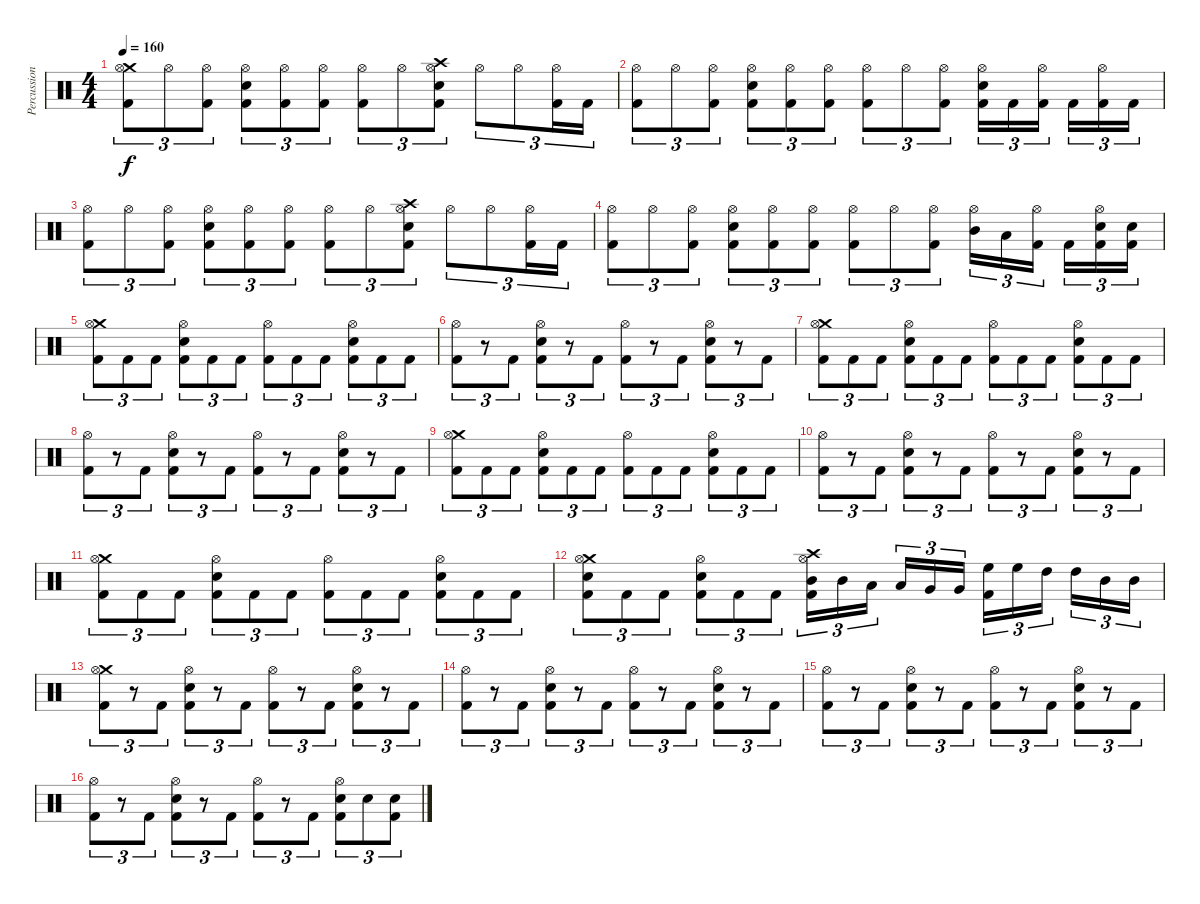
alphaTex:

\track ("Percussion" "Percussion") {instrument percussion}
\staff {score}
\articulation defaults
\ts (4 4)
\tempo 160
\clef neutral
\ks c
("Crash medium (hit)" "Hi-Hat (open)" "Kick (hit) 2").8{tu (3 2) dy f} "Hi-Hat (open)".8{tu (3 2)} ("Hi-Hat (open)" "Kick (hit) 2").8{tu (3 2)} ("Hi-Hat (open)" "Electric Snare (hit)" "Kick (hit) 2").8{tu (3 2)} ("Hi-Hat (open)" "Kick (hit) 2").8{tu (3 2)} ("Hi-Hat (open)" "Kick (hit) 2").8{tu (3 2)} ("Hi-Hat (open)" "Kick (hit) 2").8{tu (3 2)} "Hi-Hat (open)".8{tu (3 2)} ("Crash high (hit)" "Hi-Hat (open)" "Electric Snare (hit)" "Kick (hit) 2").8{tu (3 2)} "Hi-Hat (open)".8{tu (3 2)} "Hi-Hat (open)".8{tu (3 2)} ("Hi-Hat (open)" "Kick (hit) 2").16{tu (3 2)} "Kick (hit) 2".16{tu (3 2)} |
("Hi-Hat (open)" "Kick (hit) 2").8{tu (3 2)} "Hi-Hat (open)".8{tu (3 2)} ("Hi-Hat (open)" "Kick (hit) 2").8{tu (3 2)} ("Hi-Hat (open)" "Electric Snare (hit)" "Kick (hit) 2").8{tu (3 2)} ("Hi-Hat (open)" "Kick (hit) 2").8{tu (3 2)} ("Hi-Hat (open)" "Kick (hit) 2").8{tu (3 2)} ("Hi-Hat (open)" "Kick (hit) 2").8{tu (3 2)} "Hi-Hat (open)".8{tu (3 2)} ("Hi-Hat (open)" "Kick (hit) 2").8{tu (3 2)} ("Hi-Hat (open)" "Electric Snare (hit)" "Kick (hit) 2").16{tu (3 2)} "Kick (hit) 2".16{tu (3 2)} ("Hi-Hat (open)" "Kick (hit) 2").16{tu (3 2)} "Kick (hit) 2".16{tu (3 2)} ("Hi-Hat (open)" "Kick (hit) 2").16{tu (3 2)} "Kick (hit) 2".16{tu (3 2)} |
("Hi-Hat (open)" "Kick (hit) 2").8{tu (3 2)} "Hi-Hat (open)".8{tu (3 2)} ("Hi-Hat (open)" "Kick (hit) 2").8{tu (3 2)} ("Hi-Hat (open)" "Electric Snare (hit)" "Kick (hit) 2").8{tu (3 2)} ("Hi-Hat (open)" "Kick (hit) 2").8{tu (3 2)} ("Hi-Hat (open)" "Kick (hit) 2").8{tu (3 2)} ("Hi-Hat (open)" "Kick (hit) 2").8{tu (3 2)} "Hi-Hat (open)".8{tu (3 2)} ("Crash high (hit)" "Hi-Hat (open)" "Electric Snare (hit)" "Kick (hit) 2").8{tu (3 2)} "Hi-Hat (open)".8{tu (3 2)} "Hi-Hat (open)".8{tu (3 2)} ("Hi-Hat (open)" "Kick (hit) 2").16{tu (3 2)} "Kick (hit) 2".16{tu (3 2)} |
("Hi-Hat (open)" "Kick (hit) 2").8{tu (3 2)} "Hi-Hat (open)".8{tu (3 2)} ("Hi-Hat (open)" "Kick (hit) 2").8{tu (3 2)} ("Hi-Hat (open)" "Electric Snare (hit)" "Kick (hit) 2").8{tu (3 2)} ("Hi-Hat (open)" "Kick (hit) 2").8{tu (3 2)} ("Hi-Hat (open)" "Kick (hit) 2").8{tu (3 2)} ("Hi-Hat (open)" "Kick (hit) 2").8{tu (3 2)} "Hi-Hat (open)".8{tu (3 2)} ("Hi-Hat (open)" "Kick (hit) 2").8{tu (3 2)} ("Hi-Hat (open)" "Mid Tom (hit)").16{tu (3 2)} "Low Tom (hit)".16{tu (3 2)} ("Hi-Hat (open)" "Kick (hit) 2").16{tu (3 2)} "Kick (hit) 2".16{tu (3 2)} ("Hi-Hat (open)" "Electric Snare (hit)" "Kick (hit) 2").16{tu (3 2)} ("Electric Snare (hit)" "Kick (hit) 2").16{tu (3 2)} |
("Crash medium (hit)" "Hi-Hat (open)" "Kick (hit) 2").8{tu (3 2)} "Kick (hit) 2".8{tu (3 2)} "Kick (hit) 2".8{tu (3 2)} ("Hi-Hat (open)" "Electric Snare (hit)" "Kick (hit) 2").8{tu (3 2)} "Kick (hit) 2".8{tu (3 2)} "Kick (hit) 2".8{tu (3 2)} ("Hi-Hat (open)" "Kick (hit) 2").8{tu (3 2)} "Kick (hit) 2".8{tu (3 2)} "Kick (hit) 2".8{tu (3 2)} ("Hi-Hat (open)" "Electric Snare (hit)" "Kick (hit) 2").8{tu (3 2)} "Kick (hit) 2".8{tu (3 2)} "Kick (hit) 2".8{tu (3 2)} |
("Hi-Hat (open)" "Kick (hit) 2").8{tu (3 2)} r.8{tu (3 2)} "Kick (hit) 2".8{tu (3 2)} ("Hi-Hat (open)" "Electric Snare (hit)" "Kick (hit) 2").8{tu (3 2)} r.8{tu (3 2)} "Kick (hit) 2".8{tu (3 2)} ("Hi-Hat (open)" "Kick (hit) 2").8{tu (3 2)} r.8{tu (3 2)} "Kick (hit) 2".8{tu (3 2)} ("Hi-Hat (open)" "Electric Snare (hit)" "Kick (hit) 2").8{tu (3 2)} r.8{tu (3 2)} "Kick (hit) 2".8{tu (3 2)} |
("Crash medium (hit)" "Hi-Hat (open)" "Kick (hit) 2").8{tu (3 2)} "Kick (hit) 2".8{tu (3 2)} "Kick (hit) 2".8{tu (3 2)} ("Hi-Hat (open)" "Electric Snare (hit)" "Kick (hit) 2").8{tu (3 2)} "Kick (hit) 2".8{tu (3 2)} "Kick (hit) 2".8{tu (3 2)} ("Hi-Hat (open)" "Kick (hit) 2").8{tu (3 2)} "Kick (hit) 2".8{tu (3 2)} "Kick (hit) 2".8{tu (3 2)} ("Hi-Hat (open)" "Electric Snare (hit)" "Kick (hit) 2").8{tu (3 2)} "Kick (hit) 2".8{tu (3 2)} "Kick (hit) 2".8{tu (3 2)} |
("Hi-Hat (open)" "Kick (hit) 2").8{tu (3 2)} r.8{tu (3 2)} "Kick (hit) 2".8{tu (3 2)} ("Hi-Hat (open)" "Electric Snare (hit)" "Kick (hit) 2").8{tu (3 2)} r.8{tu (3 2)} "Kick (hit) 2".8{tu (3 2)} ("Hi-Hat (open)" "Kick (hit) 2").8{tu (3 2)} r.8{tu (3 2)} "Kick (hit) 2".8{tu (3 2)} ("Hi-Hat (open)" "Electric Snare (hit)" "Kick (hit) 2").8{tu (3 2)} r.8{tu (3 2)} "Kick (hit) 2".8{tu (3 2)} |
("Crash medium (hit)" "Hi-Hat (open)" "Kick (hit) 2").8{tu (3 2)} "Kick (hit) 2".8{tu (3 2)} "Kick (hit) 2".8{tu (3 2)} ("Hi-Hat (open)" "Electric Snare (hit)" "Kick (hit) 2").8{tu (3 2)} "Kick (hit) 2".8{tu (3 2)} "Kick (hit) 2".8{tu (3 2)} ("Hi-Hat (open)" "Kick (hit) 2").8{tu (3 2)} "Kick (hit) 2".8{tu (3 2)} "Kick (hit) 2".8{tu (3 2)} ("Hi-Hat (open)" "Electric Snare (hit)" "Kick (hit) 2").8{tu (3 2)} "Kick (hit) 2".8{tu (3 2)} "Kick (hit) 2".8{tu (3 2)} |
("Hi-Hat (open)" "Kick (hit) 2").8{tu (3 2)} r.8{tu (3 2)} "Kick (hit) 2".8{tu (3 2)} ("Hi-Hat (open)" "Electric Snare (hit)" "Kick (hit) 2").8{tu (3 2)} r.8{tu (3 2)} "Kick (hit) 2".8{tu (3 2)} ("Hi-Hat (open)" "Kick (hit) 2").8{tu (3 2)} r.8{tu (3 2)} "Kick (hit) 2".8{tu (3 2)} ("Hi-Hat (open)" "Electric Snare (hit)" "Kick (hit) 2").8{tu (3 2)} r.8{tu (3 2)} "Kick (hit) 2".8{tu (3 2)} |
("Crash medium (hit)" "Hi-Hat (open)" "Kick (hit) 2").8{tu (3 2)} "Kick (hit) 2".8{tu (3 2)} "Kick (hit) 2".8{tu (3 2)} ("Hi-Hat (open)" "Electric Snare (hit)" "Kick (hit) 2").8{tu (3 2)} "Kick (hit) 2".8{tu (3 2)} "Kick (hit) 2".8{tu (3 2)} ("Hi-Hat (open)" "Kick (hit) 2").8{tu (3 2)} "Kick (hit) 2".8{tu (3 2)} "Kick (hit) 2".8{tu (3 2)} ("Hi-Hat (open)" "Electric Snare (hit)" "Kick (hit) 2").8{tu (3 2)} "Kick (hit) 2".8{tu (3 2)} "Kick (hit) 2".8{tu (3 2)} |
("Crash medium (hit)" "Hi-Hat (open)" "Electric Snare (hit)" "Kick (hit) 2").8{tu (3 2)} "Kick (hit) 2".8{tu (3 2)} "Kick (hit) 2".8{tu (3 2)} ("Hi-Hat (open)" "Electric Snare (hit)" "Kick (hit) 2").8{tu (3 2)} "Kick (hit) 2".8{tu (3 2)} "Kick (hit) 2".8{tu (3 2)} ("Crash high (hit)" "Hi-Hat (open)" "Mid Tom (hit)" "Kick (hit) 2").16{tu (3 2)} "Mid Tom (hit)".16{tu (3 2)} "Low Tom (hit)".16{tu (3 2)} "Low Tom (hit)".16{tu (3 2)} "Very Low Tom (hit)".16{tu (3 2)} "Very Low Tom (hit)".16{tu (3 2)} ("High Floor Tom (hit)" "Kick (hit) 2").16{tu (3 2)} "High Floor Tom (hit)".16{tu (3 2)} "High Tom (hit)".16{tu (3 2)} "High Tom (hit)".16{tu (3 2)} "Mid Tom (hit)".16{tu (3 2)} "Mid Tom (hit)".16{tu (3 2)} |
("Crash medium (hit)" "Hi-Hat (open)" "Kick (hit) 2").8{tu (3 2)} r.8{tu (3 2)} "Kick (hit) 2".8{tu (3 2)} ("Hi-Hat (open)" "Electric Snare (hit)" "Kick (hit) 2").8{tu (3 2)} r.8{tu (3 2)} "Kick (hit) 2".8{tu (3 2)} ("Hi-Hat (open)" "Kick (hit) 2").8{tu (3 2)} r.8{tu (3 2)} "Kick (hit) 2".8{tu (3 2)} ("Hi-Hat (open)" "Electric Snare (hit)" "Kick (hit) 2").8{tu (3 2)} r.8{tu (3 2)} "Kick (hit) 2".8{tu (3 2)} |
("Hi-Hat (open)" "Kick (hit) 2").8{tu (3 2)} r.8{tu (3 2)} "Kick (hit) 2".8{tu (3 2)} ("Hi-Hat (open)" "Electric Snare (hit)" "Kick (hit) 2").8{tu (3 2)} r.8{tu (3 2)} "Kick (hit) 2".8{tu (3 2)} ("Hi-Hat (open)" "Kick (hit) 2").8{tu (3 2)} r.8{tu (3 2)} "Kick (hit) 2".8{tu (3 2)} ("Hi-Hat (open)" "Electric Snare (hit)" "Kick (hit) 2").8{tu (3 2)} r.8{tu (3 2)} "Kick (hit) 2".8{tu (3 2)} |
("Hi-Hat (open)" "Kick (hit) 2").8{tu (3 2)} r.8{tu (3 2)} "Kick (hit) 2".8{tu (3 2)} ("Hi-Hat (open)" "Electric Snare (hit)" "Kick (hit) 2").8{tu (3 2)} r.8{tu (3 2)} "Kick (hit) 2".8{tu (3 2)} ("Hi-Hat (open)" "Kick (hit) 2").8{tu (3 2)} r.8{tu (3 2)} "Kick (hit) 2".8{tu (3 2)} ("Hi-Hat (open)" "Electric Snare (hit)" "Kick (hit) 2").8{tu (3 2)} r.8{tu (3 2)} "Kick (hit) 2".8{tu (3 2)} |
("Hi-Hat (open)" "Kick (hit) 2").8{tu (3 2)} r.8{tu (3 2)} "Kick (hit) 2".8{tu (3 2)} ("Hi-Hat (open)" "Electric Snare (hit)" "Kick (hit) 2").8{tu (3 2)} r.8{tu (3 2)} "Kick (hit) 2".8{tu (3 2)} ("Hi-Hat (open)" "Kick (hit) 2").8{tu (3 2)} r.8{tu (3 2)} "Kick (hit) 2".8{tu (3 2)} ("Hi-Hat (open)" "Electric Snare (hit)" "Kick (hit) 2").8{tu (3 2)} "Electric Snare (hit)".8{tu (3 2)} ("Electric Snare (hit)" "Kick (hit) 2").8{tu (3 2)}
